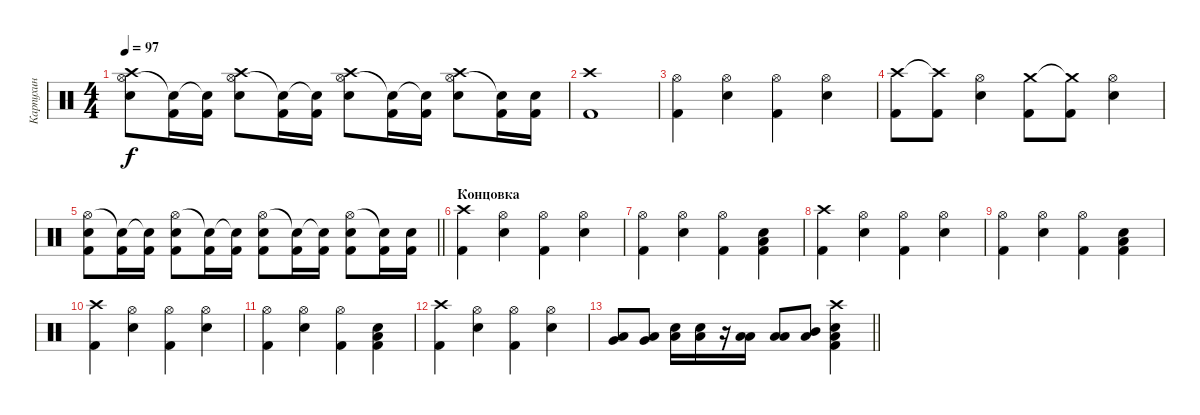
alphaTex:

\track ("Карпухин" "Карпухин") {instrument percussion}
\staff {score}
\articulation defaults
\ts (4 4)
\tempo 97
\clef neutral
\ks c
("Electric Snare (hit)" "Hi-Hat (open)" "Crash high (hit)").8{dy f} ("Kick (hit) 2" "Snare (hit)"{t}).16 ("Kick (hit) 2" "Snare (hit)"{t}).16 ("Electric Snare (hit)" "Hi-Hat (open)" "Crash high (hit)").8 ("Kick (hit) 2" "Snare (hit)"{t}).16 ("Kick (hit) 2" "Snare (hit)"{t}).16 ("Electric Snare (hit)" "Hi-Hat (open)" "Crash high (hit)").8 ("Kick (hit) 2" "Snare (hit)"{t}).16 ("Kick (hit) 2" "Snare (hit)"{t}).16 ("Electric Snare (hit)" "Hi-Hat (open)" "Crash high (hit)").8 ("Kick (hit) 2" "Snare (hit) 2"{t}).16 ("Kick (hit) 2" "Snare (hit) 2").16 |
("Crash high (hit)" "Kick (hit) 2").1 |
("Kick (hit) 2" "Hi-Hat (open)").4 ("Electric Snare (hit)" "Hi-Hat (open)").4 ("Kick (hit) 2" "Hi-Hat (open)").4 ("Electric Snare (hit)" "Hi-Hat (open)").4 |
("Crash high (hit)" "Kick (hit) 2").8 ("Crash high (hit)"{t} "Kick (hit) 2").8 ("Hi-Hat (open)" "Electric Snare (hit)").4 ("Crash medium (hit)" "Kick (hit) 2").8 ("Crash medium (hit)"{t} "Kick (hit) 2").8 ("Hi-Hat (open)" "Electric Snare (hit)").4 |
\barLineRight lightlight
("Snare (hit) 2" "Hi-Hat (open)" "Kick (hit) 2").8 ("Kick (hit) 2" "Snare (hit)"{t}).16 ("Kick (hit) 2" "Snare (hit)"{t}).16 ("Snare (hit) 2" "Hi-Hat (open)" "Kick (hit) 2").8 ("Kick (hit) 2" "Snare (hit)"{t}).16 ("Kick (hit) 2" "Snare (hit)"{t}).16 ("Snare (hit) 2" "Hi-Hat (open)" "Kick (hit) 2").8 ("Kick (hit) 2" "Snare (hit)"{t}).16 ("Kick (hit) 2" "Snare (hit)"{t}).16 ("Snare (hit) 2" "Hi-Hat (open)" "Kick (hit) 2").8 ("Kick (hit) 2" "Snare (hit) 2"{t}).16 ("Kick (hit) 2" "Snare (hit) 2").16 |
\section ("" "Концовка")
("Crash high (hit)" "Kick (hit) 2").4 ("Electric Snare (hit)" "Hi-Hat (open)").4 ("Kick (hit) 2" "Hi-Hat (open)").4 ("Electric Snare (hit)" "Hi-Hat (open)").4 |
("Kick (hit) 2" "Hi-Hat (open)").4 ("Electric Snare (hit)" "Hi-Hat (open)").4 ("Kick (hit) 2" "Hi-Hat (open)").4 ("Electric Snare (hit)" "Low Floor Tom (hit)" "Kick (hit) 2").4 |
("Crash high (hit)" "Kick (hit) 2").4 ("Electric Snare (hit)" "Hi-Hat (open)").4 ("Kick (hit) 2" "Hi-Hat (open)").4 ("Electric Snare (hit)" "Hi-Hat (open)").4 |
("Kick (hit) 2" "Hi-Hat (open)").4 ("Electric Snare (hit)" "Hi-Hat (open)").4 ("Kick (hit) 2" "Hi-Hat (open)").4 ("Electric Snare (hit)" "Low Floor Tom (hit)" "Kick (hit) 2").4 |
("Crash high (hit)" "Kick (hit) 2").4 ("Electric Snare (hit)" "Hi-Hat (open)").4 ("Kick (hit) 2" "Hi-Hat (open)").4 ("Electric Snare (hit)" "Hi-Hat (open)").4 |
("Kick (hit) 2" "Hi-Hat (open)").4 ("Electric Snare (hit)" "Hi-Hat (open)").4 ("Kick (hit) 2" "Hi-Hat (open)").4 ("Electric Snare (hit)" "Low Floor Tom (hit)" "Kick (hit) 2").4 |
("Crash high (hit)" "Kick (hit) 2").4 ("Electric Snare (hit)" "Hi-Hat (open)").4 ("Kick (hit) 2" "Hi-Hat (open)").4 ("Electric Snare (hit)" "Hi-Hat (open)").4 |
\barLineRight lightlight
("Low Floor Tom (hit)" "Very Low Tom (hit)").8 ("Low Floor Tom (hit)" "Very Low Tom (hit)").8 ("Low Floor Tom (hit)" "Electric Snare (hit)").16 ("Low Floor Tom (hit)" "Electric Snare (hit)").16 r.16 ("Low Floor Tom (hit)" "Low Tom (hit)").16 ("Low Floor Tom (hit)" "Low Tom (hit)").8 ("Low Floor Tom (hit)" "Mid Tom (hit)").8 ("Kick (hit) 2" "Low Floor Tom (hit)" "Electric Snare (hit)" "Crash high (hit)").4
